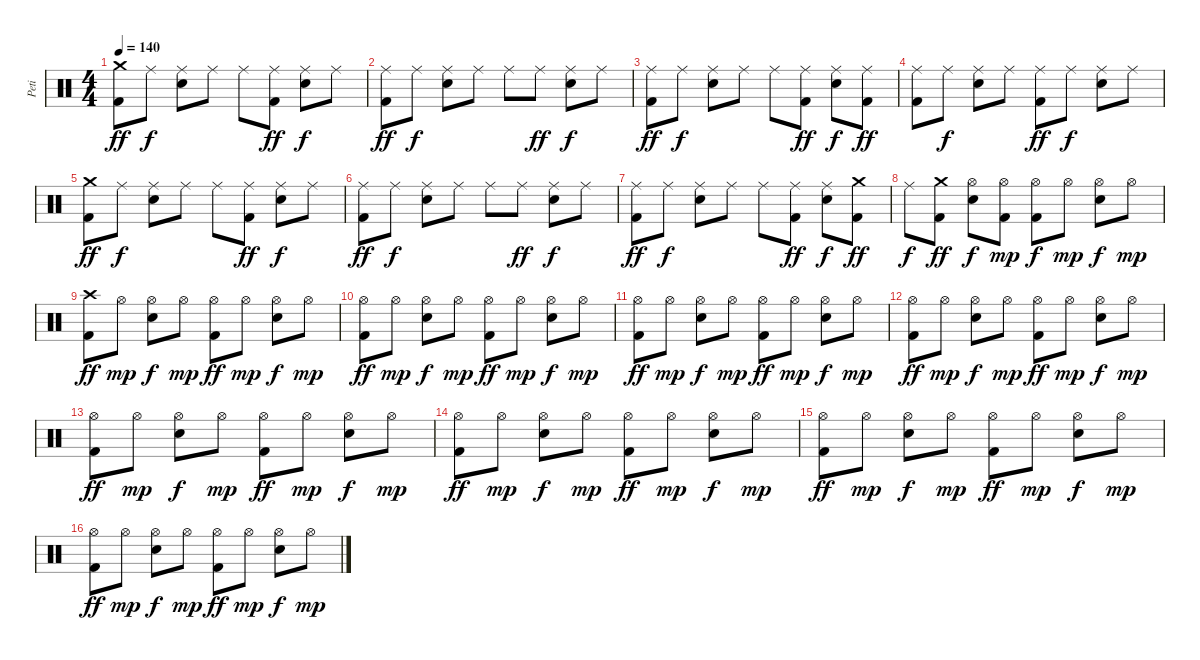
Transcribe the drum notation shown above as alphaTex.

\track ("Peti" "Peti") {instrument percussion}
\staff {score}
\articulation defaults
\ts (4 4)
\tempo 140
\clef neutral
\ks c
("Crash medium (hit)" "Kick (hit) 2").8{dy ff} "Ride (middle)".8{dy f} ("Ride (middle)" "Snare (hit) 2").8 "Ride (middle)".8 "Ride (middle)".8 ("Ride (middle)" "Kick (hit) 2").8{dy ff} ("Ride (middle)" "Snare (hit) 2").8{dy f} "Ride (middle)".8 |
("Ride (middle)" "Kick (hit) 2").8{dy ff} "Ride (middle)".8{dy f} ("Ride (middle)" "Snare (hit) 2").8 "Ride (middle)".8 "Ride (middle)".8 "Ride (middle)".8{dy ff} ("Ride (middle)" "Snare (hit) 2").8{dy f} "Ride (middle)".8 |
("Ride (middle)" "Kick (hit) 2").8{dy ff} "Ride (middle)".8{dy f} ("Ride (middle)" "Snare (hit) 2").8 "Ride (middle)".8 "Ride (middle)".8 ("Ride (middle)" "Kick (hit) 2").8{dy ff} ("Ride (middle)" "Snare (hit) 2").8{dy f} ("Ride (middle)" "Kick (hit) 2").8{dy ff} |
("Ride (middle)" "Kick (hit) 2").8 "Ride (middle)".8{dy f} ("Ride (middle)" "Snare (hit) 2").8 "Ride (middle)".8 ("Ride (middle)" "Kick (hit) 2").8{dy ff} "Ride (middle)".8{dy f} ("Ride (middle)" "Snare (hit) 2").8 "Ride (middle)".8 |
("Crash medium (hit)" "Kick (hit) 2").8{dy ff} "Ride (middle)".8{dy f} ("Ride (middle)" "Snare (hit) 2").8 "Ride (middle)".8 "Ride (middle)".8 ("Ride (middle)" "Kick (hit) 2").8{dy ff} ("Ride (middle)" "Snare (hit) 2").8{dy f} "Ride (middle)".8 |
("Ride (middle)" "Kick (hit) 2").8{dy ff} "Ride (middle)".8{dy f} ("Ride (middle)" "Snare (hit) 2").8 "Ride (middle)".8 "Ride (middle)".8 "Ride (middle)".8{dy ff} ("Ride (middle)" "Snare (hit) 2").8{dy f} "Ride (middle)".8 |
("Ride (middle)" "Kick (hit) 2").8{dy ff} "Ride (middle)".8{dy f} ("Ride (middle)" "Snare (hit) 2").8 "Ride (middle)".8 "Ride (middle)".8 ("Ride (middle)" "Kick (hit) 2").8{dy ff} ("Ride (middle)" "Snare (hit) 2").8{dy f} ("Crash medium (hit)" "Kick (hit) 2").8{dy ff} |
"Ride (middle)".8{dy f} ("Crash medium (hit)" "Kick (hit) 2").8{dy ff} ("Hi-Hat (open)" "Snare (hit) 2").8{dy f} ("Hi-Hat (open)" "Kick (hit) 2").8{dy mp} ("Hi-Hat (open)" "Kick (hit) 2").8{dy f} "Hi-Hat (open)".8{dy mp} ("Hi-Hat (open)" "Snare (hit) 2").8{dy f} "Hi-Hat (open)".8{dy mp} |
("Crash high (hit)" "Kick (hit) 2").8{dy ff} "Hi-Hat (open)".8{dy mp} ("Hi-Hat (open)" "Snare (hit) 2").8{dy f} "Hi-Hat (open)".8{dy mp} ("Hi-Hat (open)" "Kick (hit) 2").8{dy ff} "Hi-Hat (open)".8{dy mp} ("Hi-Hat (open)" "Snare (hit) 2").8{dy f} "Hi-Hat (open)".8{dy mp} |
("Hi-Hat (open)" "Kick (hit) 2").8{dy ff} "Hi-Hat (open)".8{dy mp} ("Hi-Hat (open)" "Snare (hit) 2").8{dy f} "Hi-Hat (open)".8{dy mp} ("Hi-Hat (open)" "Kick (hit) 2").8{dy ff} "Hi-Hat (open)".8{dy mp} ("Hi-Hat (open)" "Snare (hit) 2").8{dy f} "Hi-Hat (open)".8{dy mp} |
("Hi-Hat (open)" "Kick (hit) 2").8{dy ff} "Hi-Hat (open)".8{dy mp} ("Hi-Hat (open)" "Snare (hit) 2").8{dy f} "Hi-Hat (open)".8{dy mp} ("Hi-Hat (open)" "Kick (hit) 2").8{dy ff} "Hi-Hat (open)".8{dy mp} ("Hi-Hat (open)" "Snare (hit) 2").8{dy f} "Hi-Hat (open)".8{dy mp} |
("Hi-Hat (open)" "Kick (hit) 2").8{dy ff} "Hi-Hat (open)".8{dy mp} ("Hi-Hat (open)" "Snare (hit) 2").8{dy f} "Hi-Hat (open)".8{dy mp} ("Hi-Hat (open)" "Kick (hit) 2").8{dy ff} "Hi-Hat (open)".8{dy mp} ("Hi-Hat (open)" "Snare (hit) 2").8{dy f} "Hi-Hat (open)".8{dy mp} |
("Hi-Hat (open)" "Kick (hit) 2").8{dy ff} "Hi-Hat (open)".8{dy mp} ("Hi-Hat (open)" "Snare (hit) 2").8{dy f} "Hi-Hat (open)".8{dy mp} ("Hi-Hat (open)" "Kick (hit) 2").8{dy ff} "Hi-Hat (open)".8{dy mp} ("Hi-Hat (open)" "Snare (hit) 2").8{dy f} "Hi-Hat (open)".8{dy mp} |
("Hi-Hat (open)" "Kick (hit) 2").8{dy ff} "Hi-Hat (open)".8{dy mp} ("Hi-Hat (open)" "Snare (hit) 2").8{dy f} "Hi-Hat (open)".8{dy mp} ("Hi-Hat (open)" "Kick (hit) 2").8{dy ff} "Hi-Hat (open)".8{dy mp} ("Hi-Hat (open)" "Snare (hit) 2").8{dy f} "Hi-Hat (open)".8{dy mp} |
("Hi-Hat (open)" "Kick (hit) 2").8{dy ff} "Hi-Hat (open)".8{dy mp} ("Hi-Hat (open)" "Snare (hit) 2").8{dy f} "Hi-Hat (open)".8{dy mp} ("Hi-Hat (open)" "Kick (hit) 2").8{dy ff} "Hi-Hat (open)".8{dy mp} ("Hi-Hat (open)" "Snare (hit) 2").8{dy f} "Hi-Hat (open)".8{dy mp} |
("Hi-Hat (open)" "Kick (hit) 2").8{dy ff} "Hi-Hat (open)".8{dy mp} ("Hi-Hat (open)" "Snare (hit) 2").8{dy f} "Hi-Hat (open)".8{dy mp} ("Hi-Hat (open)" "Kick (hit) 2").8{dy ff} "Hi-Hat (open)".8{dy mp} ("Hi-Hat (open)" "Snare (hit) 2").8{dy f} "Hi-Hat (open)".8{dy mp}
